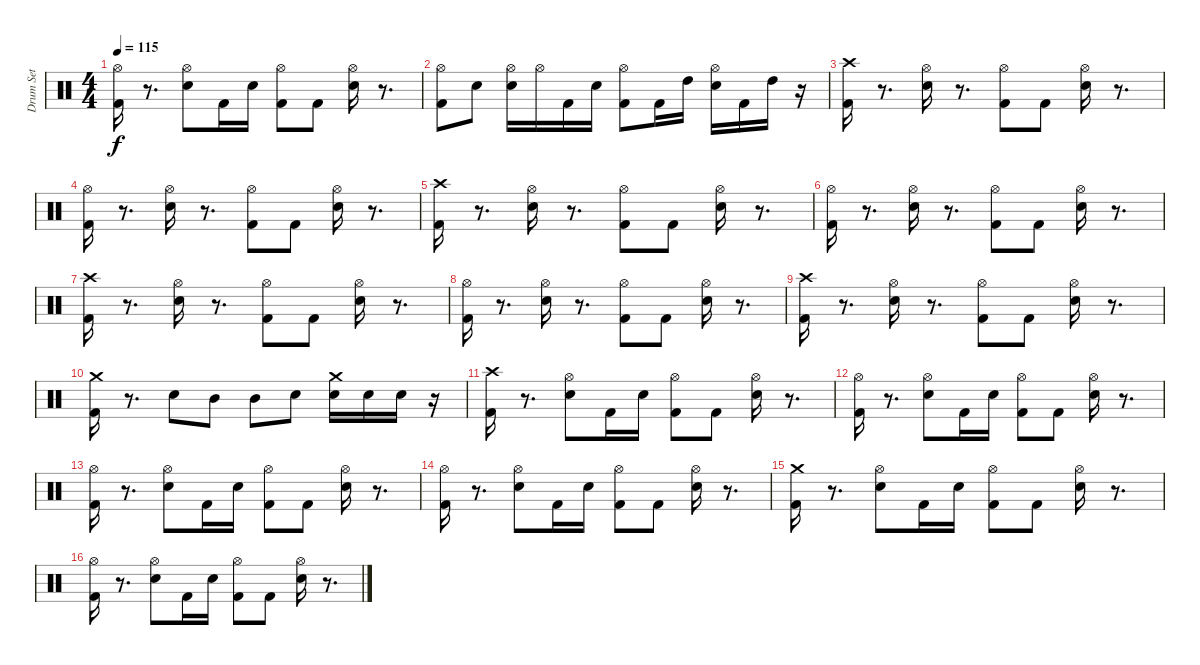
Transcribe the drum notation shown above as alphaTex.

\track ("Drum Set" "Drum Set") {instrument percussion}
\staff {score}
\articulation defaults
\ts (4 4)
\tempo 115
\clef neutral
\ks c
("Hi-Hat (open)" "Kick (hit) 2").16{dy f} r.8{d} ("Hi-Hat (open)" "Electric Snare (hit)").8 "Kick (hit) 2".16 "Electric Snare (hit)".16 ("Hi-Hat (open)" "Kick (hit) 2").8 "Kick (hit) 2".8 ("Hi-Hat (open)" "Electric Snare (hit)").16 r.8{d} |
("Hi-Hat (open)" "Kick (hit) 2").8 "Electric Snare (hit)".8 ("Hi-Hat (open)" "Electric Snare (hit)").16 "Hi-Hat (open)".16 "Kick (hit) 2".16 "Electric Snare (hit)".16 ("Hi-Hat (open)" "Kick (hit) 2").8 "Kick (hit) 2".16 "High Tom (hit)".16 ("Hi-Hat (open)" "Electric Snare (hit)").16 "Kick (hit) 2".16 "High Tom (hit)".16 r.16 |
("Crash high (hit)" "Kick (hit) 2").16 r.8{d} ("Hi-Hat (open)" "Electric Snare (hit)").16 r.8{d} ("Hi-Hat (open)" "Kick (hit) 2").8 "Kick (hit) 2".8 ("Hi-Hat (open)" "Electric Snare (hit)").16 r.8{d} |
("Hi-Hat (open)" "Kick (hit) 2").16 r.8{d} ("Hi-Hat (open)" "Electric Snare (hit)").16 r.8{d} ("Hi-Hat (open)" "Kick (hit) 2").8 "Kick (hit) 2".8 ("Hi-Hat (open)" "Electric Snare (hit)").16 r.8{d} |
("Crash high (hit)" "Kick (hit) 2").16 r.8{d} ("Hi-Hat (open)" "Electric Snare (hit)").16 r.8{d} ("Hi-Hat (open)" "Kick (hit) 2").8 "Kick (hit) 2".8 ("Hi-Hat (open)" "Electric Snare (hit)").16 r.8{d} |
("Hi-Hat (open)" "Kick (hit) 2").16 r.8{d} ("Hi-Hat (open)" "Electric Snare (hit)").16 r.8{d} ("Hi-Hat (open)" "Kick (hit) 2").8 "Kick (hit) 2".8 ("Hi-Hat (open)" "Electric Snare (hit)").16 r.8{d} |
("Crash high (hit)" "Kick (hit) 2").16 r.8{d} ("Hi-Hat (open)" "Electric Snare (hit)").16 r.8{d} ("Hi-Hat (open)" "Kick (hit) 2").8 "Kick (hit) 2".8 ("Hi-Hat (open)" "Electric Snare (hit)").16 r.8{d} |
("Hi-Hat (open)" "Kick (hit) 2").16 r.8{d} ("Hi-Hat (open)" "Electric Snare (hit)").16 r.8{d} ("Hi-Hat (open)" "Kick (hit) 2").8 "Kick (hit) 2".8 ("Hi-Hat (open)" "Electric Snare (hit)").16 r.8{d} |
("Crash high (hit)" "Kick (hit) 2").16 r.8{d} ("Hi-Hat (open)" "Electric Snare (hit)").16 r.8{d} ("Hi-Hat (open)" "Kick (hit) 2").8 "Kick (hit) 2".8 ("Hi-Hat (open)" "Electric Snare (hit)").16 r.8{d} |
("Crash medium (hit)" "Kick (hit) 2").16 r.8{d} "Electric Snare (hit)".8 "Mid Tom (hit)".8 "Mid Tom (hit)".8 "Electric Snare (hit)".8 ("Crash medium (hit)" "Electric Snare (hit)").16 "Electric Snare (hit)".16 "Electric Snare (hit)".16 r.16 |
("Crash high (hit)" "Kick (hit) 2").16 r.8{d} ("Hi-Hat (open)" "Electric Snare (hit)").8 "Kick (hit) 2".16 "Electric Snare (hit)".16 ("Hi-Hat (open)" "Kick (hit) 2").8 "Kick (hit) 2".8 ("Hi-Hat (open)" "Electric Snare (hit)").16 r.8{d} |
("Hi-Hat (open)" "Kick (hit) 2").16 r.8{d} ("Hi-Hat (open)" "Electric Snare (hit)").8 "Kick (hit) 2".16 "Electric Snare (hit)".16 ("Hi-Hat (open)" "Kick (hit) 2").8 "Kick (hit) 2".8 ("Hi-Hat (open)" "Electric Snare (hit)").16 r.8{d} |
("Hi-Hat (open)" "Kick (hit) 2").16 r.8{d} ("Hi-Hat (open)" "Electric Snare (hit)").8 "Kick (hit) 2".16 "Electric Snare (hit)".16 ("Hi-Hat (open)" "Kick (hit) 2").8 "Kick (hit) 2".8 ("Hi-Hat (open)" "Electric Snare (hit)").16 r.8{d} |
("Hi-Hat (open)" "Kick (hit) 2").16 r.8{d} ("Hi-Hat (open)" "Electric Snare (hit)").8 "Kick (hit) 2".16 "Electric Snare (hit)".16 ("Hi-Hat (open)" "Kick (hit) 2").8 "Kick (hit) 2".8 ("Hi-Hat (open)" "Electric Snare (hit)").16 r.8{d} |
("Crash medium (hit)" "Kick (hit) 2").16 r.8{d} ("Hi-Hat (open)" "Electric Snare (hit)").8 "Kick (hit) 2".16 "Electric Snare (hit)".16 ("Hi-Hat (open)" "Kick (hit) 2").8 "Kick (hit) 2".8 ("Hi-Hat (open)" "Electric Snare (hit)").16 r.8{d} |
("Hi-Hat (open)" "Kick (hit) 2").16 r.8{d} ("Hi-Hat (open)" "Electric Snare (hit)").8 "Kick (hit) 2".16 "Electric Snare (hit)".16 ("Hi-Hat (open)" "Kick (hit) 2").8 "Kick (hit) 2".8 ("Hi-Hat (open)" "Electric Snare (hit)").16 r.8{d}
